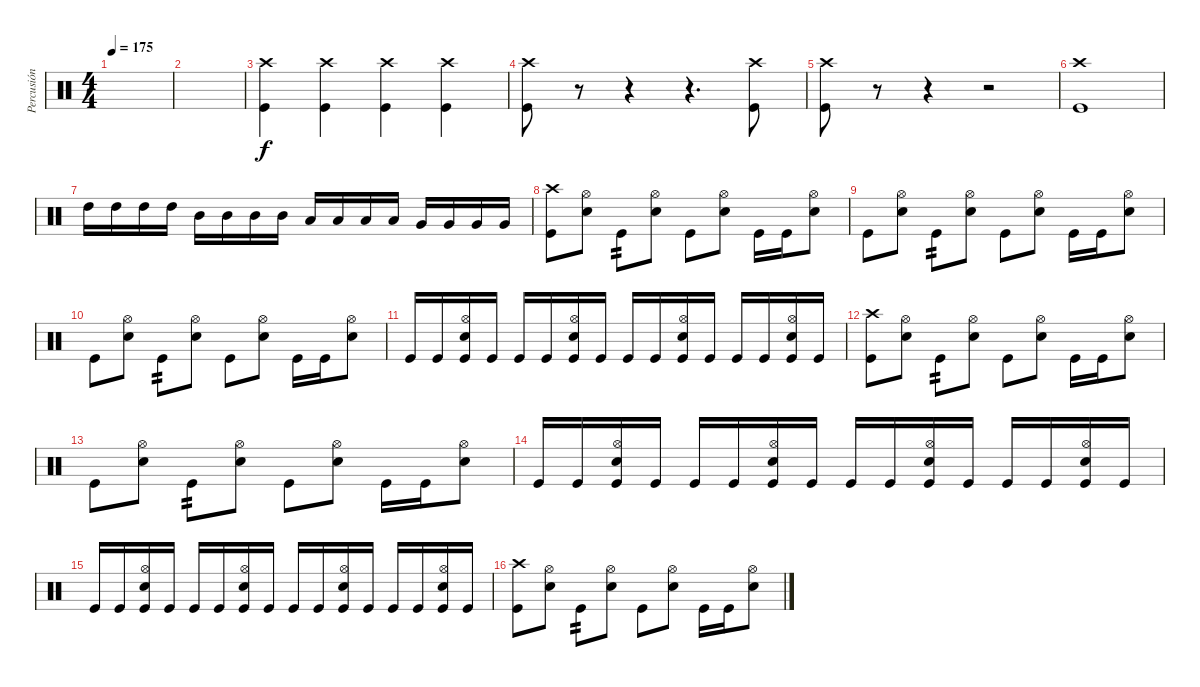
\track ("Percusión" "Percusión") {instrument percussion}
\staff {score}
\articulation defaults
\ts (4 4)
\tempo 175
\clef neutral
\ks c
|
|
("Crash high (hit)" "Kick (hit)").4 ("Crash high (hit)" "Kick (hit)").4 ("Crash high (hit)" "Kick (hit)").4 ("Crash high (hit)" "Kick (hit)").4 |
("Crash high (hit)" "Kick (hit)").8 r.8{volume 5} r.4 r.4{d} ("Crash high (hit)" "Kick (hit)").8{volume 16} |
("Crash high (hit)" "Kick (hit)").8 r.8{volume 5} r.4 r.2 |
("Crash high (hit)" "Kick (hit)").1{volume 16} |
"High Tom (hit)".16 "High Tom (hit)".16 "High Tom (hit)".16 "High Tom (hit)".16 "Mid Tom (hit)".16 "Mid Tom (hit)".16 "Mid Tom (hit)".16 "Mid Tom (hit)".16 "Low Tom (hit)".16 "Low Tom (hit)".16 "Low Tom (hit)".16 "Low Tom (hit)".16 "Very Low Tom (hit)".16 "Very Low Tom (hit)".16 "Very Low Tom (hit)".16 "Very Low Tom (hit)".16 |
("Crash high (hit)" "Kick (hit)").8 ("Hi-Hat (open)" "Snare (hit) 2").8 "Kick (hit)".8{tp 2} ("Hi-Hat (open)" "Snare (hit) 2").8 "Kick (hit)".8 ("Hi-Hat (open)" "Snare (hit) 2").8 "Kick (hit)".16 "Kick (hit)".16 ("Hi-Hat (open)" "Snare (hit) 2").8 |
"Kick (hit)".8 ("Hi-Hat (open)" "Snare (hit) 2").8 "Kick (hit)".8{tp 2} ("Hi-Hat (open)" "Snare (hit) 2").8 "Kick (hit)".8 ("Hi-Hat (open)" "Snare (hit) 2").8 "Kick (hit)".16 "Kick (hit)".16 ("Hi-Hat (open)" "Snare (hit) 2").8 |
"Kick (hit)".8 ("Hi-Hat (open)" "Snare (hit) 2").8 "Kick (hit)".8{tp 2} ("Hi-Hat (open)" "Snare (hit) 2").8 "Kick (hit)".8 ("Hi-Hat (open)" "Snare (hit) 2").8 "Kick (hit)".16 "Kick (hit)".16 ("Hi-Hat (open)" "Snare (hit) 2").8 |
"Kick (hit)".16 "Kick (hit)".16 ("Hi-Hat (open)" "Snare (hit) 2" "Kick (hit)").16 "Kick (hit)".16 "Kick (hit)".16 "Kick (hit)".16 ("Hi-Hat (open)" "Snare (hit) 2" "Kick (hit)").16 "Kick (hit)".16 "Kick (hit)".16 "Kick (hit)".16 ("Hi-Hat (open)" "Snare (hit) 2" "Kick (hit)").16 "Kick (hit)".16 "Kick (hit)".16 "Kick (hit)".16 ("Hi-Hat (open)" "Snare (hit) 2" "Kick (hit)").16 "Kick (hit)".16 |
("Crash high (hit)" "Kick (hit)").8 ("Hi-Hat (open)" "Snare (hit) 2").8 "Kick (hit)".8{tp 2} ("Hi-Hat (open)" "Snare (hit) 2").8 "Kick (hit)".8 ("Hi-Hat (open)" "Snare (hit) 2").8 "Kick (hit)".16 "Kick (hit)".16 ("Hi-Hat (open)" "Snare (hit) 2").8 |
"Kick (hit)".8 ("Hi-Hat (open)" "Snare (hit) 2").8 "Kick (hit)".8{tp 2} ("Hi-Hat (open)" "Snare (hit) 2").8 "Kick (hit)".8 ("Hi-Hat (open)" "Snare (hit) 2").8 "Kick (hit)".16 "Kick (hit)".16 ("Hi-Hat (open)" "Snare (hit) 2").8 |
"Kick (hit)".16 "Kick (hit)".16 ("Hi-Hat (open)" "Snare (hit) 2" "Kick (hit)").16 "Kick (hit)".16 "Kick (hit)".16 "Kick (hit)".16 ("Hi-Hat (open)" "Snare (hit) 2" "Kick (hit)").16 "Kick (hit)".16 "Kick (hit)".16 "Kick (hit)".16 ("Hi-Hat (open)" "Snare (hit) 2" "Kick (hit)").16 "Kick (hit)".16 "Kick (hit)".16 "Kick (hit)".16 ("Hi-Hat (open)" "Snare (hit) 2" "Kick (hit)").16 "Kick (hit)".16 |
"Kick (hit)".16 "Kick (hit)".16 ("Hi-Hat (open)" "Snare (hit) 2" "Kick (hit)").16 "Kick (hit)".16 "Kick (hit)".16 "Kick (hit)".16 ("Hi-Hat (open)" "Snare (hit) 2" "Kick (hit)").16 "Kick (hit)".16 "Kick (hit)".16 "Kick (hit)".16 ("Hi-Hat (open)" "Snare (hit) 2" "Kick (hit)").16 "Kick (hit)".16 "Kick (hit)".16 "Kick (hit)".16 ("Hi-Hat (open)" "Snare (hit) 2" "Kick (hit)").16 "Kick (hit)".16 |
("Crash high (hit)" "Kick (hit)").8 ("Hi-Hat (open)" "Snare (hit) 2").8 "Kick (hit)".8{tp 2} ("Hi-Hat (open)" "Snare (hit) 2").8 "Kick (hit)".8 ("Hi-Hat (open)" "Snare (hit) 2").8 "Kick (hit)".16 "Kick (hit)".16 ("Hi-Hat (open)" "Snare (hit) 2").8
